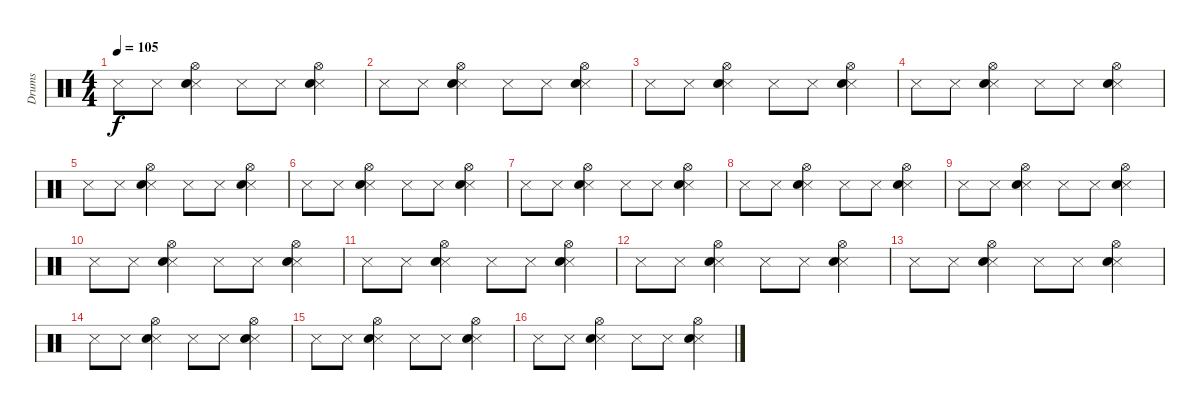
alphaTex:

\track ("Drums" "Drums") {instrument percussion}
\staff {score}
\articulation defaults
\ts (4 4)
\tempo 105
\clef neutral
\ks c "Snare (side stick) 3".8{dy f} "Snare (side stick) 3".8
("Snare (side stick) 3" "Hi-Hat (open)" "Snare (hit) 2").4 "Snare (side stick) 3".8 "Snare (side stick) 3".8 ("Snare (side stick) 3" "Hi-Hat (open)" "Snare (hit) 2").4 |
"Snare (side stick) 3".8 "Snare (side stick) 3".8 ("Snare (side stick) 3" "Hi-Hat (open)" "Snare (hit) 2").4 "Snare (side stick) 3".8 "Snare (side stick) 3".8 ("Snare (side stick) 3" "Hi-Hat (open)" "Snare (hit) 2").4 |
"Snare (side stick) 3".8 "Snare (side stick) 3".8 ("Snare (side stick) 3" "Hi-Hat (open)" "Snare (hit) 2").4 "Snare (side stick) 3".8 "Snare (side stick) 3".8 ("Snare (side stick) 3" "Hi-Hat (open)" "Snare (hit) 2").4 |
"Snare (side stick) 3".8 "Snare (side stick) 3".8 ("Snare (side stick) 3" "Hi-Hat (open)" "Snare (hit) 2").4 "Snare (side stick) 3".8 "Snare (side stick) 3".8 ("Snare (side stick) 3" "Hi-Hat (open)" "Snare (hit) 2").4 |
"Snare (side stick) 3".8 "Snare (side stick) 3".8 ("Snare (side stick) 3" "Hi-Hat (open)" "Snare (hit) 2").4 "Snare (side stick) 3".8 "Snare (side stick) 3".8 ("Snare (side stick) 3" "Hi-Hat (open)" "Snare (hit) 2").4 |
"Snare (side stick) 3".8 "Snare (side stick) 3".8 ("Snare (side stick) 3" "Hi-Hat (open)" "Snare (hit) 2").4 "Snare (side stick) 3".8 "Snare (side stick) 3".8 ("Snare (side stick) 3" "Hi-Hat (open)" "Snare (hit) 2").4 |
"Snare (side stick) 3".8 "Snare (side stick) 3".8 ("Snare (side stick) 3" "Hi-Hat (open)" "Snare (hit) 2").4 "Snare (side stick) 3".8 "Snare (side stick) 3".8 ("Snare (side stick) 3" "Hi-Hat (open)" "Snare (hit) 2").4 |
"Snare (side stick) 3".8 "Snare (side stick) 3".8 ("Snare (side stick) 3" "Hi-Hat (open)" "Snare (hit) 2").4 "Snare (side stick) 3".8 "Snare (side stick) 3".8 ("Snare (side stick) 3" "Hi-Hat (open)" "Snare (hit) 2").4 |
"Snare (side stick) 3".8 "Snare (side stick) 3".8 ("Snare (side stick) 3" "Hi-Hat (open)" "Snare (hit) 2").4 "Snare (side stick) 3".8 "Snare (side stick) 3".8 ("Snare (side stick) 3" "Hi-Hat (open)" "Snare (hit) 2").4 |
"Snare (side stick) 3".8 "Snare (side stick) 3".8 ("Snare (side stick) 3" "Hi-Hat (open)" "Snare (hit) 2").4 "Snare (side stick) 3".8 "Snare (side stick) 3".8 ("Snare (side stick) 3" "Hi-Hat (open)" "Snare (hit) 2").4 |
"Snare (side stick) 3".8 "Snare (side stick) 3".8 ("Snare (side stick) 3" "Hi-Hat (open)" "Snare (hit) 2").4 "Snare (side stick) 3".8 "Snare (side stick) 3".8 ("Snare (side stick) 3" "Hi-Hat (open)" "Snare (hit) 2").4 |
"Snare (side stick) 3".8 "Snare (side stick) 3".8 ("Snare (side stick) 3" "Hi-Hat (open)" "Snare (hit) 2").4 "Snare (side stick) 3".8 "Snare (side stick) 3".8 ("Snare (side stick) 3" "Hi-Hat (open)" "Snare (hit) 2").4 |
"Snare (side stick) 3".8 "Snare (side stick) 3".8 ("Snare (side stick) 3" "Hi-Hat (open)" "Snare (hit) 2").4 "Snare (side stick) 3".8 "Snare (side stick) 3".8 ("Snare (side stick) 3" "Hi-Hat (open)" "Snare (hit) 2").4 |
"Snare (side stick) 3".8 "Snare (side stick) 3".8 ("Snare (side stick) 3" "Hi-Hat (open)" "Snare (hit) 2").4 "Snare (side stick) 3".8 "Snare (side stick) 3".8 ("Snare (side stick) 3" "Hi-Hat (open)" "Snare (hit) 2").4 |
"Snare (side stick) 3".8 "Snare (side stick) 3".8 ("Snare (side stick) 3" "Hi-Hat (open)" "Snare (hit) 2").4 "Snare (side stick) 3".8 "Snare (side stick) 3".8 ("Snare (side stick) 3" "Hi-Hat (open)" "Snare (hit) 2").4 |
"Snare (side stick) 3".8 "Snare (side stick) 3".8 ("Snare (side stick) 3" "Hi-Hat (open)" "Snare (hit) 2").4 "Snare (side stick) 3".8 "Snare (side stick) 3".8 ("Snare (side stick) 3" "Hi-Hat (open)" "Snare (hit) 2").4
